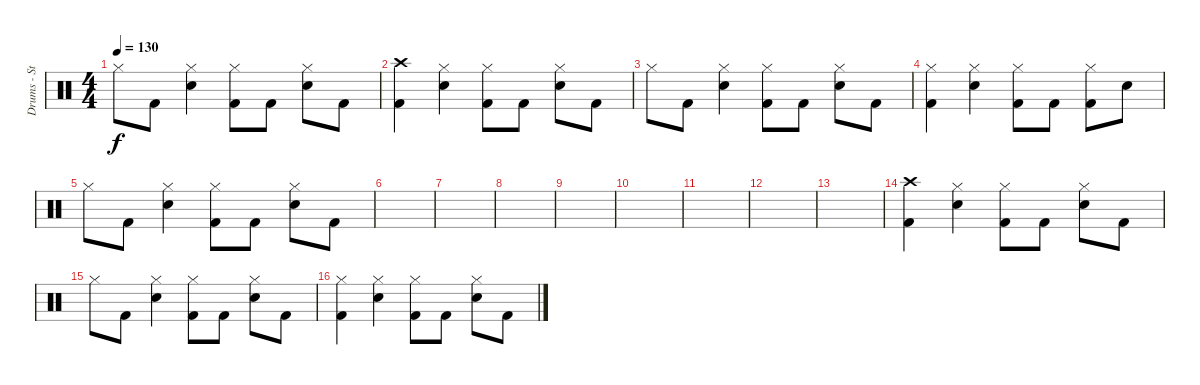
\track ("Drums - Steven" "Drums - St") {instrument percussion}
\staff {score}
\articulation defaults
\ts (4 4)
\tempo 130
\clef neutral
\ks c "Hi-Hat (closed)".8{dy f} "Kick (hit) 2".8
("Electric Snare (hit)" "Hi-Hat (closed)").4 ("Kick (hit) 2" "Hi-Hat (closed)").8 "Kick (hit) 2".8 ("Electric Snare (hit)" "Hi-Hat (closed)").8 "Kick (hit) 2".8 |
("Kick (hit) 2" "Crash high (hit)").4 ("Electric Snare (hit)" "Hi-Hat (closed)").4 ("Kick (hit) 2" "Hi-Hat (closed)").8 "Kick (hit) 2".8 ("Electric Snare (hit)" "Hi-Hat (closed)").8 "Kick (hit) 2".8 |
"Hi-Hat (closed)".8 "Kick (hit) 2".8 ("Electric Snare (hit)" "Hi-Hat (closed)").4 ("Kick (hit) 2" "Hi-Hat (closed)").8 "Kick (hit) 2".8 ("Electric Snare (hit)" "Hi-Hat (closed)").8 "Kick (hit) 2".8 |
("Kick (hit) 2" "Hi-Hat (closed)").4 ("Electric Snare (hit)" "Hi-Hat (closed)").4 ("Kick (hit) 2" "Hi-Hat (closed)").8 "Kick (hit) 2".8 ("Kick (hit) 2" "Hi-Hat (closed)").8 "Electric Snare (hit)".8 |
"Hi-Hat (closed)".8 "Kick (hit) 2".8 ("Electric Snare (hit)" "Hi-Hat (closed)").4 ("Kick (hit) 2" "Hi-Hat (closed)").8 "Kick (hit) 2".8 ("Electric Snare (hit)" "Hi-Hat (closed)").8 "Kick (hit) 2".8 |
|
|
|
|
|
|
|
|
("Kick (hit) 2" "Crash high (hit)").4 ("Electric Snare (hit)" "Hi-Hat (closed)").4 ("Kick (hit) 2" "Hi-Hat (closed)").8 "Kick (hit) 2".8 ("Electric Snare (hit)" "Hi-Hat (closed)").8 "Kick (hit) 2".8 |
"Hi-Hat (closed)".8 "Kick (hit) 2".8 ("Electric Snare (hit)" "Hi-Hat (closed)").4 ("Kick (hit) 2" "Hi-Hat (closed)").8 "Kick (hit) 2".8 ("Electric Snare (hit)" "Hi-Hat (closed)").8 "Kick (hit) 2".8 |
("Kick (hit) 2" "Hi-Hat (closed)").4 ("Electric Snare (hit)" "Hi-Hat (closed)").4 ("Kick (hit) 2" "Hi-Hat (closed)").8 "Kick (hit) 2".8 ("Electric Snare (hit)" "Hi-Hat (closed)").8 "Kick (hit) 2".8
